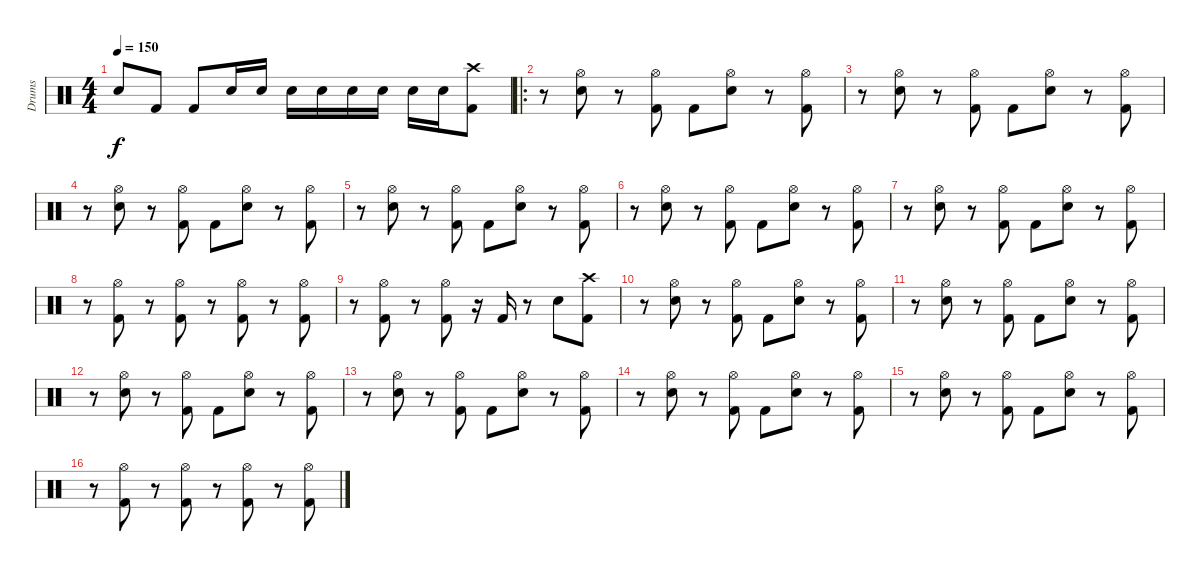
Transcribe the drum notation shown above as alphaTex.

\track ("Drums" "Drums") {instrument percussion}
\staff {score}
\articulation defaults
\ts (4 4)
\tempo 150
\clef neutral
\ks c "Snare (hit) 2".8{dy f} "Kick (hit) 2".8 "Kick (hit) 2".8 "Snare (hit) 2".16 "Snare (hit) 2".16 "Snare (hit) 2".16 "Snare (hit) 2".16 "Snare (hit) 2".16 "Snare (hit) 2".16 "Snare (hit) 2".16 "Snare (hit) 2".16
("Kick (hit) 2" "Crash high (hit)").8 |
\ro
r.8 ("Snare (hit) 2" "Hi-Hat (open)").8 r.8 ("Kick (hit) 2" "Hi-Hat (open)").8 "Kick (hit) 2".8 ("Snare (hit) 2" "Hi-Hat (open)").8 r.8 ("Kick (hit) 2" "Hi-Hat (open)").8 |
r.8 ("Snare (hit) 2" "Hi-Hat (open)").8 r.8 ("Kick (hit) 2" "Hi-Hat (open)").8 "Kick (hit) 2".8 ("Snare (hit) 2" "Hi-Hat (open)").8 r.8 ("Kick (hit) 2" "Hi-Hat (open)").8 |
r.8 ("Snare (hit) 2" "Hi-Hat (open)").8 r.8 ("Kick (hit) 2" "Hi-Hat (open)").8 "Kick (hit) 2".8 ("Snare (hit) 2" "Hi-Hat (open)").8 r.8 ("Kick (hit) 2" "Hi-Hat (open)").8 |
r.8 ("Snare (hit) 2" "Hi-Hat (open)").8 r.8 ("Kick (hit) 2" "Hi-Hat (open)").8 "Kick (hit) 2".8 ("Snare (hit) 2" "Hi-Hat (open)").8 r.8 ("Kick (hit) 2" "Hi-Hat (open)").8 |
r.8 ("Snare (hit) 2" "Hi-Hat (open)").8 r.8 ("Kick (hit) 2" "Hi-Hat (open)").8 "Kick (hit) 2".8 ("Snare (hit) 2" "Hi-Hat (open)").8 r.8 ("Kick (hit) 2" "Hi-Hat (open)").8 |
r.8 ("Snare (hit) 2" "Hi-Hat (open)").8 r.8 ("Kick (hit) 2" "Hi-Hat (open)").8 "Kick (hit) 2".8 ("Snare (hit) 2" "Hi-Hat (open)").8 r.8 ("Kick (hit) 2" "Hi-Hat (open)").8 |
r.8 ("Kick (hit) 2" "Hi-Hat (open)").8 r.8 ("Kick (hit) 2" "Hi-Hat (open)").8 r.8 ("Kick (hit) 2" "Hi-Hat (open)").8 r.8 ("Kick (hit) 2" "Hi-Hat (open)").8 |
r.8 ("Kick (hit) 2" "Hi-Hat (open)").8 r.8 ("Kick (hit) 2" "Hi-Hat (open)").8 r.16 "Kick (hit) 2".16 r.8 "Snare (hit) 2".8 ("Kick (hit) 2" "Crash high (hit)").8 |
r.8 ("Snare (hit) 2" "Hi-Hat (open)").8 r.8 ("Kick (hit) 2" "Hi-Hat (open)").8 "Kick (hit) 2".8 ("Snare (hit) 2" "Hi-Hat (open)").8 r.8 ("Kick (hit) 2" "Hi-Hat (open)").8 |
r.8 ("Snare (hit) 2" "Hi-Hat (open)").8 r.8 ("Kick (hit) 2" "Hi-Hat (open)").8 "Kick (hit) 2".8 ("Snare (hit) 2" "Hi-Hat (open)").8 r.8 ("Kick (hit) 2" "Hi-Hat (open)").8 |
r.8 ("Snare (hit) 2" "Hi-Hat (open)").8 r.8 ("Kick (hit) 2" "Hi-Hat (open)").8 "Kick (hit) 2".8 ("Snare (hit) 2" "Hi-Hat (open)").8 r.8 ("Kick (hit) 2" "Hi-Hat (open)").8 |
r.8 ("Snare (hit) 2" "Hi-Hat (open)").8 r.8 ("Kick (hit) 2" "Hi-Hat (open)").8 "Kick (hit) 2".8 ("Snare (hit) 2" "Hi-Hat (open)").8 r.8 ("Kick (hit) 2" "Hi-Hat (open)").8 |
r.8 ("Snare (hit) 2" "Hi-Hat (open)").8 r.8 ("Kick (hit) 2" "Hi-Hat (open)").8 "Kick (hit) 2".8 ("Snare (hit) 2" "Hi-Hat (open)").8 r.8 ("Kick (hit) 2" "Hi-Hat (open)").8 |
r.8 ("Snare (hit) 2" "Hi-Hat (open)").8 r.8 ("Kick (hit) 2" "Hi-Hat (open)").8 "Kick (hit) 2".8 ("Snare (hit) 2" "Hi-Hat (open)").8 r.8 ("Kick (hit) 2" "Hi-Hat (open)").8 |
r.8 ("Kick (hit) 2" "Hi-Hat (open)").8 r.8 ("Kick (hit) 2" "Hi-Hat (open)").8 r.8 ("Kick (hit) 2" "Hi-Hat (open)").8 r.8 ("Kick (hit) 2" "Hi-Hat (open)").8
